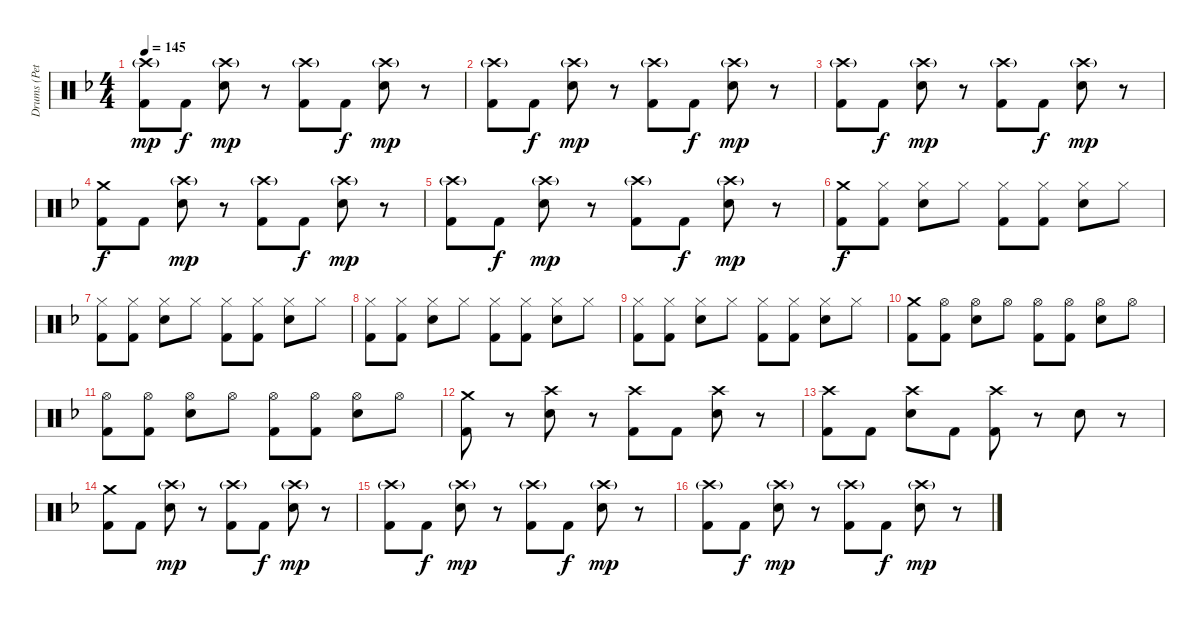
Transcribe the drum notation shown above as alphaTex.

\track ("Drums (Pete)" "Drums (Pet") {instrument percussion}
\staff {score}
\articulation defaults
\ts (4 4)
\tempo 145
\clef neutral
\ks f
("Crash high (hit)"{g} "Kick (hit) 2").8{dy mp} "Kick (hit) 2".8{dy f} ("Crash high (hit)"{g} "Snare (hit) 2").8{dy mp} r.8 ("Crash high (hit)"{g} "Kick (hit) 2").8 "Kick (hit) 2".8{dy f} ("Crash high (hit)"{g} "Snare (hit) 2").8{dy mp} r.8 |
("Crash high (hit)"{g} "Kick (hit) 2").8 "Kick (hit) 2".8{dy f} ("Crash high (hit)"{g} "Snare (hit) 2").8{dy mp} r.8 ("Crash high (hit)"{g} "Kick (hit) 2").8 "Kick (hit) 2".8{dy f} ("Crash high (hit)"{g} "Snare (hit) 2").8{dy mp} r.8 |
("Crash high (hit)"{g} "Kick (hit) 2").8 "Kick (hit) 2".8{dy f} ("Crash high (hit)"{g} "Snare (hit) 2").8{dy mp} r.8 ("Crash high (hit)"{g} "Kick (hit) 2").8 "Kick (hit) 2".8{dy f} ("Crash high (hit)"{g} "Snare (hit) 2").8{dy mp} r.8 |
("Crash medium (hit)" "Kick (hit) 2").8{dy f} "Kick (hit) 2".8 ("Crash high (hit)"{g} "Snare (hit) 2").8{dy mp} r.8 ("Crash high (hit)"{g} "Kick (hit) 2").8 "Kick (hit) 2".8{dy f} ("Crash high (hit)"{g} "Snare (hit) 2").8{dy mp} r.8 |
("Crash high (hit)"{g} "Kick (hit) 2").8 "Kick (hit) 2".8{dy f} ("Crash high (hit)"{g} "Snare (hit) 2").8{dy mp} r.8 ("Crash high (hit)"{g} "Kick (hit) 2").8 "Kick (hit) 2".8{dy f} ("Crash high (hit)"{g} "Snare (hit) 2").8{dy mp} r.8 |
("Crash medium (hit)" "Kick (hit) 2").8{dy f} ("Hi-Hat (closed)" "Kick (hit) 2").8 ("Hi-Hat (closed)" "Snare (hit) 2").8 "Hi-Hat (closed)".8 ("Hi-Hat (closed)" "Kick (hit) 2").8 ("Hi-Hat (closed)" "Kick (hit) 2").8 ("Hi-Hat (closed)" "Snare (hit) 2").8 "Hi-Hat (closed)".8 |
("Hi-Hat (closed)" "Kick (hit) 2").8 ("Hi-Hat (closed)" "Kick (hit) 2").8 ("Hi-Hat (closed)" "Snare (hit) 2").8 "Hi-Hat (closed)".8 ("Hi-Hat (closed)" "Kick (hit) 2").8 ("Hi-Hat (closed)" "Kick (hit) 2").8 ("Hi-Hat (closed)" "Snare (hit) 2").8 "Hi-Hat (closed)".8 |
("Hi-Hat (closed)" "Kick (hit) 2").8 ("Hi-Hat (closed)" "Kick (hit) 2").8 ("Hi-Hat (closed)" "Snare (hit) 2").8 "Hi-Hat (closed)".8 ("Hi-Hat (closed)" "Kick (hit) 2").8 ("Hi-Hat (closed)" "Kick (hit) 2").8 ("Hi-Hat (closed)" "Snare (hit) 2").8 "Hi-Hat (closed)".8 |
("Hi-Hat (closed)" "Kick (hit) 2").8 ("Hi-Hat (closed)" "Kick (hit) 2").8 ("Hi-Hat (closed)" "Snare (hit) 2").8 "Hi-Hat (closed)".8 ("Hi-Hat (closed)" "Kick (hit) 2").8 ("Hi-Hat (closed)" "Kick (hit) 2").8 ("Hi-Hat (closed)" "Snare (hit) 2").8 "Hi-Hat (closed)".8 |
("Crash medium (hit)" "Kick (hit) 2").8 ("Hi-Hat (open)" "Kick (hit) 2").8 ("Hi-Hat (open)" "Snare (hit) 2").8 "Hi-Hat (open)".8 ("Hi-Hat (open)" "Kick (hit) 2").8 ("Hi-Hat (open)" "Kick (hit) 2").8 ("Hi-Hat (open)" "Snare (hit) 2").8 "Hi-Hat (open)".8 |
("Hi-Hat (open)" "Kick (hit) 2").8 ("Hi-Hat (open)" "Kick (hit) 2").8 ("Hi-Hat (open)" "Snare (hit) 2").8 "Hi-Hat (open)".8 ("Hi-Hat (open)" "Kick (hit) 2").8 ("Hi-Hat (open)" "Kick (hit) 2").8 ("Hi-Hat (open)" "Snare (hit) 2").8 "Hi-Hat (open)".8 |
("Crash medium (hit)" "Kick (hit) 2").8 r.8 ("Crash high (hit)" "Snare (hit) 2").8 r.8 ("Crash high (hit)" "Kick (hit) 2").8 "Kick (hit) 2".8 ("Crash high (hit)" "Snare (hit) 2").8 r.8 |
("Crash high (hit)" "Kick (hit) 2").8 "Kick (hit) 2".8 ("Crash high (hit)" "Snare (hit) 2").8 "Kick (hit) 2".8 ("Crash high (hit)" "Kick (hit) 2").8 r.8 "Snare (hit) 2".8 r.8 |
("Crash medium (hit)" "Kick (hit) 2").8 "Kick (hit) 2".8 ("Crash high (hit)"{g} "Snare (hit) 2").8{dy mp} r.8 ("Crash high (hit)"{g} "Kick (hit) 2").8 "Kick (hit) 2".8{dy f} ("Crash high (hit)"{g} "Snare (hit) 2").8{dy mp} r.8 |
("Crash high (hit)"{g} "Kick (hit) 2").8 "Kick (hit) 2".8{dy f} ("Crash high (hit)"{g} "Snare (hit) 2").8{dy mp} r.8 ("Crash high (hit)"{g} "Kick (hit) 2").8 "Kick (hit) 2".8{dy f} ("Crash high (hit)"{g} "Snare (hit) 2").8{dy mp} r.8 |
("Crash high (hit)"{g} "Kick (hit) 2").8 "Kick (hit) 2".8{dy f} ("Crash high (hit)"{g} "Snare (hit) 2").8{dy mp} r.8 ("Crash high (hit)"{g} "Kick (hit) 2").8 "Kick (hit) 2".8{dy f} ("Crash high (hit)"{g} "Snare (hit) 2").8{dy mp} r.8
